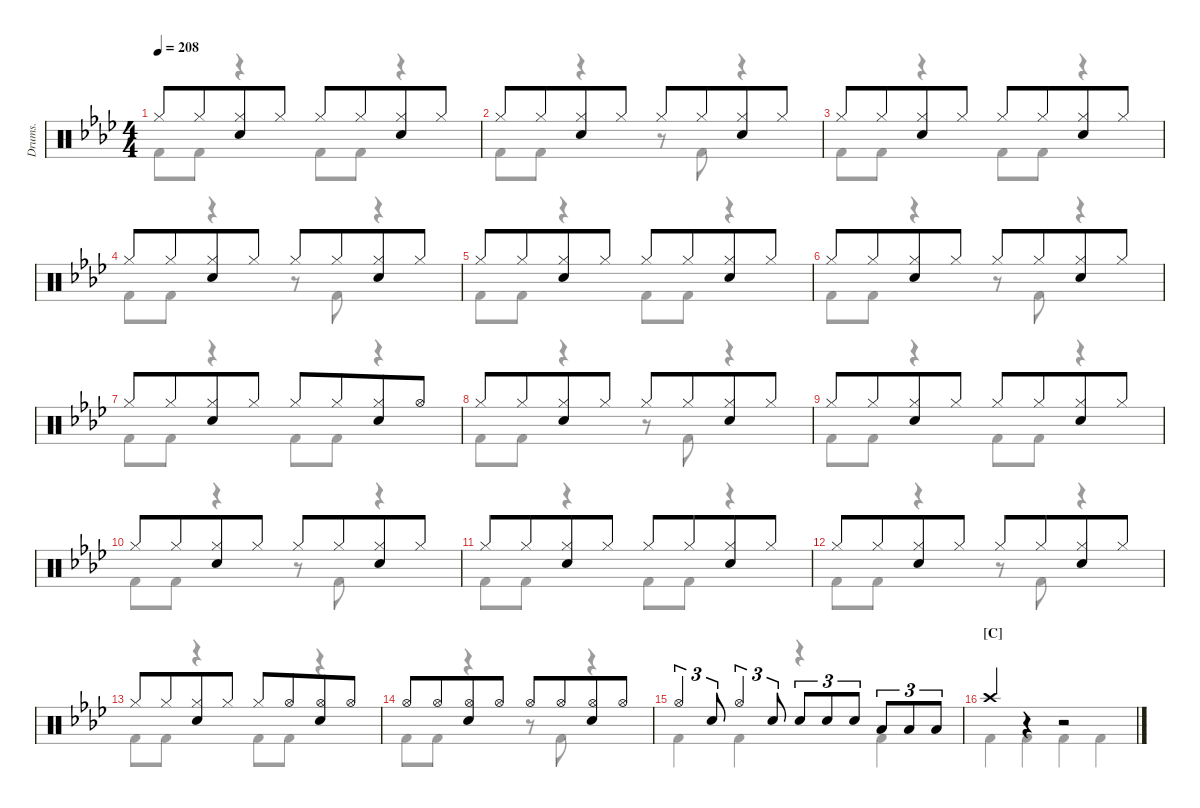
\defaultSystemsLayout 4
\hideDynamics
\otherSystemsTrackNameOrientation horizontal
\track ("Drumkit" "Drums.") {defaultSystemsLayout 4 instrument percussion}
\staff {score}
\articulation defaults
\voice
\ts (4 4)
\tempo 208
\clef neutral
\ks fminor "Hi-Hat (closed)"{acc forcenatural}.8{dy mf} "Hi-Hat (closed)"{acc forcenatural}.8{beam merge}
("Hi-Hat (closed)"{acc forcenatural} "Snare (hit) 2"{acc forcenatural}).8 "Hi-Hat (closed)"{acc forcenatural}.8 "Hi-Hat (closed)"{acc forcenatural}.8 "Hi-Hat (closed)"{acc forcenatural}.8{beam merge} ("Hi-Hat (closed)"{acc forcenatural} "Snare (hit) 2"{acc forcenatural}).8 "Hi-Hat (closed)"{acc forcenatural}.8 |
"Hi-Hat (closed)"{acc forcenatural}.8 "Hi-Hat (closed)"{acc forcenatural}.8{beam merge} ("Hi-Hat (closed)"{acc forcenatural} "Snare (hit) 2"{acc forcenatural}).8 "Hi-Hat (closed)"{acc forcenatural}.8 "Hi-Hat (closed)"{acc forcenatural}.8 "Hi-Hat (closed)"{acc forcenatural}.8{beam merge} ("Hi-Hat (closed)"{acc forcenatural} "Snare (hit) 2"{acc forcenatural}).8 "Hi-Hat (closed)"{acc forcenatural}.8 |
"Hi-Hat (closed)"{acc forcenatural}.8 "Hi-Hat (closed)"{acc forcenatural}.8{beam merge} ("Hi-Hat (closed)"{acc forcenatural} "Snare (hit) 2"{acc forcenatural}).8 "Hi-Hat (closed)"{acc forcenatural}.8 "Hi-Hat (closed)"{acc forcenatural}.8 "Hi-Hat (closed)"{acc forcenatural}.8{beam merge} ("Hi-Hat (closed)"{acc forcenatural} "Snare (hit) 2"{acc forcenatural}).8 "Hi-Hat (closed)"{acc forcenatural}.8 |
"Hi-Hat (closed)"{acc forcenatural}.8 "Hi-Hat (closed)"{acc forcenatural}.8{beam merge} ("Hi-Hat (closed)"{acc forcenatural} "Snare (hit) 2"{acc forcenatural}).8 "Hi-Hat (closed)"{acc forcenatural}.8 "Hi-Hat (closed)"{acc forcenatural}.8 "Hi-Hat (closed)"{acc forcenatural}.8{beam merge} ("Hi-Hat (closed)"{acc forcenatural} "Snare (hit) 2"{acc forcenatural}).8 "Hi-Hat (closed)"{acc forcenatural}.8 |
"Hi-Hat (closed)"{acc forcenatural}.8 "Hi-Hat (closed)"{acc forcenatural}.8{beam merge} ("Hi-Hat (closed)"{acc forcenatural} "Snare (hit) 2"{acc forcenatural}).8 "Hi-Hat (closed)"{acc forcenatural}.8 "Hi-Hat (closed)"{acc forcenatural}.8 "Hi-Hat (closed)"{acc forcenatural}.8{beam merge} ("Hi-Hat (closed)"{acc forcenatural} "Snare (hit) 2"{acc forcenatural}).8 "Hi-Hat (closed)"{acc forcenatural}.8 |
"Hi-Hat (closed)"{acc forcenatural}.8 "Hi-Hat (closed)"{acc forcenatural}.8{beam merge} ("Hi-Hat (closed)"{acc forcenatural} "Snare (hit) 2"{acc forcenatural}).8 "Hi-Hat (closed)"{acc forcenatural}.8 "Hi-Hat (closed)"{acc forcenatural}.8 "Hi-Hat (closed)"{acc forcenatural}.8{beam merge} ("Hi-Hat (closed)"{acc forcenatural} "Snare (hit) 2"{acc forcenatural}).8 "Hi-Hat (closed)"{acc forcenatural}.8 |
"Hi-Hat (closed)"{acc forcenatural}.8 "Hi-Hat (closed)"{acc forcenatural}.8{beam merge} ("Hi-Hat (closed)"{acc forcenatural} "Snare (hit) 2"{acc forcenatural}).8 "Hi-Hat (closed)"{acc forcenatural}.8 "Hi-Hat (closed)"{acc forcenatural}.8 "Hi-Hat (closed)"{acc forcenatural}.8{beam merge} ("Hi-Hat (closed)"{acc forcenatural} "Snare (hit) 2"{acc forcenatural}).8 "Hi-Hat (open)"{acc forcenatural}.8 |
"Hi-Hat (closed)"{acc forcenatural}.8 "Hi-Hat (closed)"{acc forcenatural}.8{beam merge} ("Hi-Hat (closed)"{acc forcenatural} "Snare (hit) 2"{acc forcenatural}).8 "Hi-Hat (closed)"{acc forcenatural}.8 "Hi-Hat (closed)"{acc forcenatural}.8 "Hi-Hat (closed)"{acc forcenatural}.8{beam merge} ("Hi-Hat (closed)"{acc forcenatural} "Snare (hit) 2"{acc forcenatural}).8 "Hi-Hat (closed)"{acc forcenatural}.8 |
"Hi-Hat (closed)"{acc forcenatural}.8 "Hi-Hat (closed)"{acc forcenatural}.8{beam merge} ("Hi-Hat (closed)"{acc forcenatural} "Snare (hit) 2"{acc forcenatural}).8 "Hi-Hat (closed)"{acc forcenatural}.8 "Hi-Hat (closed)"{acc forcenatural}.8 "Hi-Hat (closed)"{acc forcenatural}.8{beam merge} ("Hi-Hat (closed)"{acc forcenatural} "Snare (hit) 2"{acc forcenatural}).8 "Hi-Hat (closed)"{acc forcenatural}.8 |
"Hi-Hat (closed)"{acc forcenatural}.8 "Hi-Hat (closed)"{acc forcenatural}.8{beam merge} ("Hi-Hat (closed)"{acc forcenatural} "Snare (hit) 2"{acc forcenatural}).8 "Hi-Hat (closed)"{acc forcenatural}.8 "Hi-Hat (closed)"{acc forcenatural}.8 "Hi-Hat (closed)"{acc forcenatural}.8{beam merge} ("Hi-Hat (closed)"{acc forcenatural} "Snare (hit) 2"{acc forcenatural}).8 "Hi-Hat (closed)"{acc forcenatural}.8 |
"Hi-Hat (closed)"{acc forcenatural}.8 "Hi-Hat (closed)"{acc forcenatural}.8{beam merge} ("Hi-Hat (closed)"{acc forcenatural} "Snare (hit) 2"{acc forcenatural}).8 "Hi-Hat (closed)"{acc forcenatural}.8 "Hi-Hat (closed)"{acc forcenatural}.8 "Hi-Hat (closed)"{acc forcenatural}.8{beam merge} ("Hi-Hat (closed)"{acc forcenatural} "Snare (hit) 2"{acc forcenatural}).8 "Hi-Hat (closed)"{acc forcenatural}.8 |
"Hi-Hat (closed)"{acc forcenatural}.8 "Hi-Hat (closed)"{acc forcenatural}.8{beam merge} ("Hi-Hat (closed)"{acc forcenatural} "Snare (hit) 2"{acc forcenatural}).8 "Hi-Hat (closed)"{acc forcenatural}.8 "Hi-Hat (closed)"{acc forcenatural}.8 "Hi-Hat (closed)"{acc forcenatural}.8{beam merge} ("Hi-Hat (closed)"{acc forcenatural} "Snare (hit) 2"{acc forcenatural}).8 "Hi-Hat (closed)"{acc forcenatural}.8 |
"Hi-Hat (closed)"{acc forcenatural}.8 "Hi-Hat (closed)"{acc forcenatural}.8{beam merge} ("Hi-Hat (closed)"{acc forcenatural} "Snare (hit) 2"{acc forcenatural}).8 "Hi-Hat (closed)"{acc forcenatural}.8 "Hi-Hat (closed)"{acc forcenatural}.8 "Hi-Hat (open)"{acc forcenatural}.8{beam merge} ("Hi-Hat (open)"{acc forcenatural} "Snare (hit) 2"{acc forcenatural}).8 "Hi-Hat (open)"{acc forcenatural}.8 |
"Hi-Hat (open)"{acc forcenatural}.8 "Hi-Hat (open)"{acc forcenatural}.8{beam merge} ("Hi-Hat (open)"{acc forcenatural} "Snare (hit) 2"{acc forcenatural}).8 "Hi-Hat (open)"{acc forcenatural}.8 "Hi-Hat (open)"{acc forcenatural}.8 "Hi-Hat (open)"{acc forcenatural}.8{beam merge} ("Hi-Hat (open)"{acc forcenatural} "Snare (hit) 2"{acc forcenatural}).8 "Hi-Hat (open)"{acc forcenatural}.8 |
"Hi-Hat (open)"{acc forcenatural}.4{tu (3 2)} "Snare (hit) 2"{acc forcenatural}.8{tu (3 2)} "Hi-Hat (open)"{acc forcenatural}.4{tu (3 2)} "Snare (hit) 2"{acc forcenatural}.8{tu (3 2)} "Snare (hit) 2"{acc forcenatural}.8{tu (3 2)} "Snare (hit) 2"{acc forcenatural}.8{tu (3 2)} "Snare (hit) 2"{acc forcenatural}.8{tu (3 2)} "Low Tom (hit)"{acc forcenatural}.8{tu (3 2)} "Low Tom (hit)"{acc forcenatural}.8{tu (3 2)} "Low Tom (hit)"{acc forcenatural}.8{tu (3 2)} |
\section ("C" "")
"Crash high (hit)"{acc forcenatural}.4 r.4 r.2
\voice
\clef neutral
\ottava regular
\simile none
\ks fminor "Kick (hit) 2"{acc forcenatural}.8{dy mf} "Kick (hit) 2"{acc forcenatural}.8
r.4 "Kick (hit) 2"{acc forcenatural}.8 "Kick (hit) 2"{acc forcenatural}.8 r.4 |
"Kick (hit) 2"{acc forcenatural}.8 "Kick (hit) 2"{acc forcenatural}.8 r.4 r.8 "Kick (hit) 2"{acc forcenatural}.8 r.4 |
"Kick (hit) 2"{acc forcenatural}.8 "Kick (hit) 2"{acc forcenatural}.8 r.4 "Kick (hit) 2"{acc forcenatural}.8 "Kick (hit) 2"{acc forcenatural}.8 r.4 |
"Kick (hit) 2"{acc forcenatural}.8 "Kick (hit) 2"{acc forcenatural}.8 r.4 r.8 "Kick (hit) 2"{acc forcenatural}.8 r.4 |
"Kick (hit) 2"{acc forcenatural}.8 "Kick (hit) 2"{acc forcenatural}.8 r.4 "Kick (hit) 2"{acc forcenatural}.8 "Kick (hit) 2"{acc forcenatural}.8 r.4 |
"Kick (hit) 2"{acc forcenatural}.8 "Kick (hit) 2"{acc forcenatural}.8 r.4 r.8 "Kick (hit) 2"{acc forcenatural}.8 r.4 |
"Kick (hit) 2"{acc forcenatural}.8 "Kick (hit) 2"{acc forcenatural}.8 r.4 "Kick (hit) 2"{acc forcenatural}.8 "Kick (hit) 2"{acc forcenatural}.8 r.4 |
"Kick (hit) 2"{acc forcenatural}.8 "Kick (hit) 2"{acc forcenatural}.8 r.4 r.8 "Kick (hit) 2"{acc forcenatural}.8 r.4 |
"Kick (hit) 2"{acc forcenatural}.8 "Kick (hit) 2"{acc forcenatural}.8 r.4 "Kick (hit) 2"{acc forcenatural}.8 "Kick (hit) 2"{acc forcenatural}.8 r.4 |
"Kick (hit) 2"{acc forcenatural}.8 "Kick (hit) 2"{acc forcenatural}.8 r.4 r.8 "Kick (hit) 2"{acc forcenatural}.8 r.4 |
"Kick (hit) 2"{acc forcenatural}.8 "Kick (hit) 2"{acc forcenatural}.8 r.4 "Kick (hit) 2"{acc forcenatural}.8 "Kick (hit) 2"{acc forcenatural}.8 r.4 |
"Kick (hit) 2"{acc forcenatural}.8 "Kick (hit) 2"{acc forcenatural}.8 r.4 r.8 "Kick (hit) 2"{acc forcenatural}.8 r.4 |
"Kick (hit) 2"{acc forcenatural}.8 "Kick (hit) 2"{acc forcenatural}.8 r.4 "Kick (hit) 2"{acc forcenatural}.8 "Kick (hit) 2"{acc forcenatural}.8 r.4 |
"Kick (hit) 2"{acc forcenatural}.8 "Kick (hit) 2"{acc forcenatural}.8 r.4 r.8 "Kick (hit) 2"{acc forcenatural}.8 r.4 |
"Kick (hit) 2"{acc forcenatural}.4 "Kick (hit) 2"{acc forcenatural}.4 r.4 "Kick (hit) 2"{acc forcenatural}.4 |
"Kick (hit) 2"{acc forcenatural}.4 "Kick (hit) 2"{acc forcenatural}.4 "Kick (hit) 2"{acc forcenatural}.4 "Kick (hit) 2"{acc forcenatural}.4
